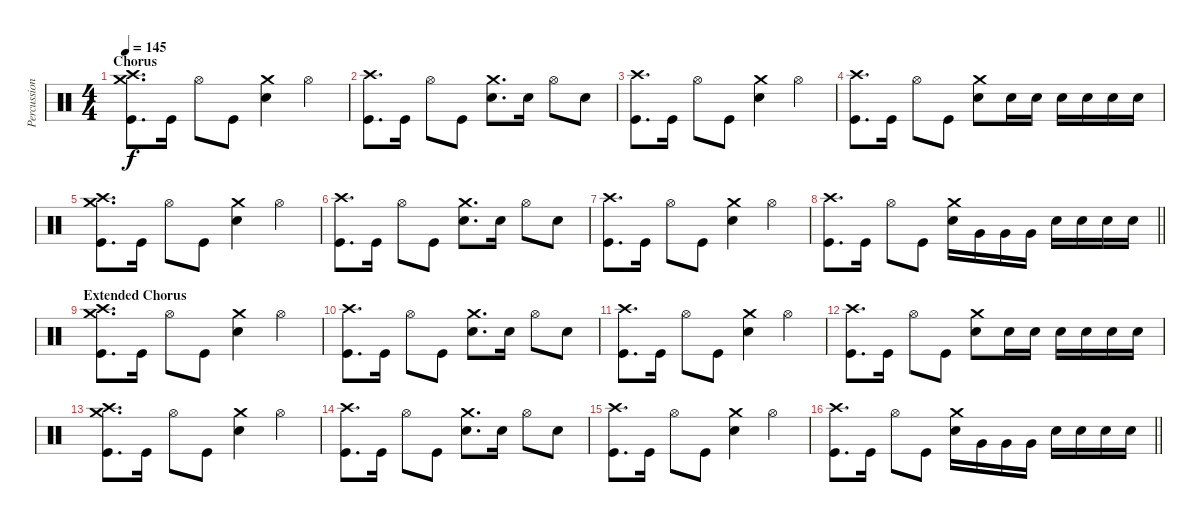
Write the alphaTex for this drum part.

\track ("Percussion" "Percussion") {instrument percussion}
\staff {score}
\articulation defaults
\ts (4 4)
\section ("" "Chorus")
\tempo 145
\clef neutral
\ks c
("Crash high (hit)" "Crash medium (hit)" "Kick (hit)").8{d dy f} "Kick (hit)".16 "Hi-Hat (open)".8 "Kick (hit)".8 ("Crash medium (hit)" "Electric Snare (hit)").4 "Hi-Hat (open)".4 |
("Crash high (hit)" "Kick (hit)").8{d} "Kick (hit)".16 "Hi-Hat (open)".8 "Kick (hit)".8 ("Crash medium (hit)" "Electric Snare (hit)").8{d} "Electric Snare (hit)".16 "Hi-Hat (open)".8 "Electric Snare (hit)".8 |
("Crash high (hit)" "Kick (hit)").8{d} "Kick (hit)".16 "Hi-Hat (open)".8 "Kick (hit)".8 ("Crash medium (hit)" "Electric Snare (hit)").4 "Hi-Hat (open)".4 |
("Crash high (hit)" "Kick (hit)").8{d} "Kick (hit)".16 "Hi-Hat (open)".8 "Kick (hit)".8 ("Crash medium (hit)" "Electric Snare (hit)").8 "Electric Snare (hit)".16 "Electric Snare (hit)".16 "Electric Snare (hit)".16 "Electric Snare (hit)".16 "Electric Snare (hit)".16 "Electric Snare (hit)".16 |
("Crash high (hit)" "Crash medium (hit)" "Kick (hit)").8{d} "Kick (hit)".16 "Hi-Hat (open)".8 "Kick (hit)".8 ("Crash medium (hit)" "Electric Snare (hit)").4 "Hi-Hat (open)".4 |
("Crash high (hit)" "Kick (hit)").8{d} "Kick (hit)".16 "Hi-Hat (open)".8 "Kick (hit)".8 ("Crash medium (hit)" "Electric Snare (hit)").8{d} "Electric Snare (hit)".16 "Hi-Hat (open)".8 "Electric Snare (hit)".8 |
("Crash high (hit)" "Kick (hit)").8{d} "Kick (hit)".16 "Hi-Hat (open)".8 "Kick (hit)".8 ("Crash medium (hit)" "Electric Snare (hit)").4 "Hi-Hat (open)".4 |
\barLineRight lightlight
("Crash high (hit)" "Kick (hit)").8{d} "Kick (hit)".16 "Hi-Hat (open)".8 "Kick (hit)".8 ("Crash medium (hit)" "Electric Snare (hit)").16 "Very Low Tom (hit)".16 "Very Low Tom (hit)".16 "Very Low Tom (hit)".16 "Electric Snare (hit)".16 "Electric Snare (hit)".16 "Electric Snare (hit)".16 "Electric Snare (hit)".16 |
\section ("" "Extended Chorus")
("Crash high (hit)" "Crash medium (hit)" "Kick (hit)").8{d} "Kick (hit)".16 "Hi-Hat (open)".8 "Kick (hit)".8 ("Crash medium (hit)" "Electric Snare (hit)").4 "Hi-Hat (open)".4 |
("Crash high (hit)" "Kick (hit)").8{d} "Kick (hit)".16 "Hi-Hat (open)".8 "Kick (hit)".8 ("Crash medium (hit)" "Electric Snare (hit)").8{d} "Electric Snare (hit)".16 "Hi-Hat (open)".8 "Electric Snare (hit)".8 |
("Crash high (hit)" "Kick (hit)").8{d} "Kick (hit)".16 "Hi-Hat (open)".8 "Kick (hit)".8 ("Crash medium (hit)" "Electric Snare (hit)").4 "Hi-Hat (open)".4 |
("Crash high (hit)" "Kick (hit)").8{d} "Kick (hit)".16 "Hi-Hat (open)".8 "Kick (hit)".8 ("Crash medium (hit)" "Electric Snare (hit)").8 "Electric Snare (hit)".16 "Electric Snare (hit)".16 "Electric Snare (hit)".16 "Electric Snare (hit)".16 "Electric Snare (hit)".16 "Electric Snare (hit)".16 |
("Crash high (hit)" "Crash medium (hit)" "Kick (hit)").8{d} "Kick (hit)".16 "Hi-Hat (open)".8 "Kick (hit)".8 ("Crash medium (hit)" "Electric Snare (hit)").4 "Hi-Hat (open)".4 |
("Crash high (hit)" "Kick (hit)").8{d} "Kick (hit)".16 "Hi-Hat (open)".8 "Kick (hit)".8 ("Crash medium (hit)" "Electric Snare (hit)").8{d} "Electric Snare (hit)".16 "Hi-Hat (open)".8 "Electric Snare (hit)".8 |
("Crash high (hit)" "Kick (hit)").8{d} "Kick (hit)".16 "Hi-Hat (open)".8 "Kick (hit)".8 ("Crash medium (hit)" "Electric Snare (hit)").4 "Hi-Hat (open)".4 |
\barLineRight lightlight
("Crash high (hit)" "Kick (hit)").8{d} "Kick (hit)".16 "Hi-Hat (open)".8 "Kick (hit)".8 ("Crash medium (hit)" "Electric Snare (hit)").16 "Very Low Tom (hit)".16 "Very Low Tom (hit)".16 "Very Low Tom (hit)".16 "Electric Snare (hit)".16 "Electric Snare (hit)".16 "Electric Snare (hit)".16 "Electric Snare (hit)".16
